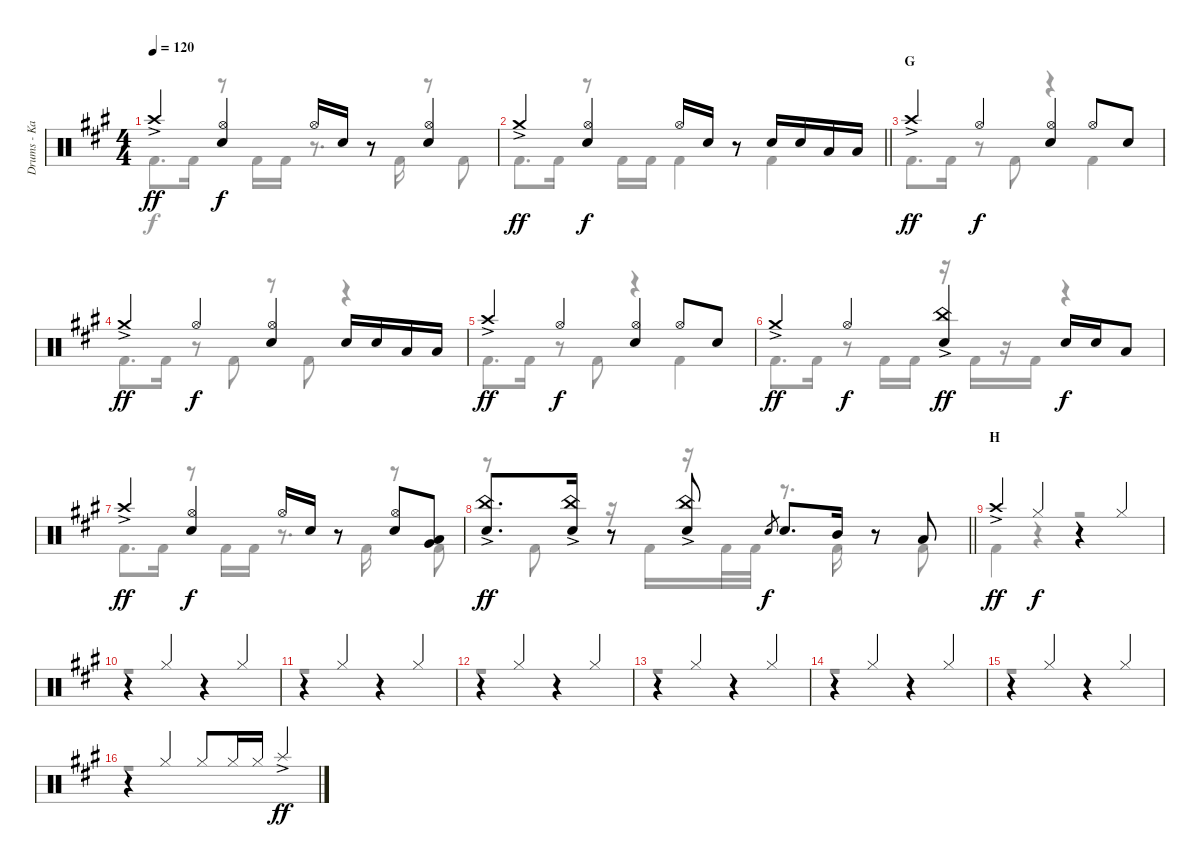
\track ("Drums - Kai" "Drums - Ka") {instrument percussion}
\staff {score}
\articulation defaults
\voice
\ts (4 4)
\tempo 120
\clef neutral
\ks a "Crash high (hit)"{ac}.4{dy ff}
("Hi-Hat (open)" "Snare (hit) 2").4{dy f} "Hi-Hat (open)".16 "Snare (hit) 2".16 r.8 ("Hi-Hat (open)" "Snare (hit) 2").4 |
\barLineRight lightlight "Crash medium (hit)"{ac}.4{dy ff}
("Hi-Hat (open)" "Snare (hit) 2").4{dy f} "Hi-Hat (open)".16 "Snare (hit) 2".16 r.8 "Snare (hit) 2".16 "Snare (hit) 2".16 "Low Tom (hit)".16 "Low Tom (hit)".16 |
\section ("" "G")
"Crash high (hit)"{ac}.4{dy ff} "Hi-Hat (open)".4{dy f} ("Hi-Hat (open)" "Snare (hit) 2").4 "Hi-Hat (open)".8 "Snare (hit) 2".8 |
"Crash medium (hit)"{ac}.4{dy ff} "Hi-Hat (open)".4{dy f} ("Hi-Hat (open)" "Snare (hit) 2").4 "Snare (hit) 2".16 "Snare (hit) 2".16 "Low Tom (hit)".16 "Low Tom (hit)".16 |
"Crash high (hit)"{ac}.4{dy ff} "Hi-Hat (open)".4{dy f} ("Hi-Hat (open)" "Snare (hit) 2").4 "Hi-Hat (open)".8 "Snare (hit) 2".8 |
"Crash medium (hit)"{ac}.4{dy ff} "Hi-Hat (open)".4{dy f} ("China (hit)"{ac} "Snare (hit) 2").4{dy ff} "Snare (hit) 2".16{dy f} "Snare (hit) 2".16 "Low Tom (hit)".8 |
"Crash high (hit)"{ac}.4{dy ff} ("Hi-Hat (open)" "Snare (hit) 2").4{dy f} "Hi-Hat (open)".16 "Snare (hit) 2".16 r.8 ("Hi-Hat (open)" "Snare (hit) 2").8 ("Low Tom (hit)" "Very Low Tom (hit)").8 |
\barLineRight lightlight
("China (hit)"{ac} "Snare (hit) 2").8{d dy ff} ("China (hit)"{ac} "Snare (hit) 2").16 r.8 ("China (hit)"{ac} "Snare (hit) 2").8 "Snare (hit) 2".8{gr dy f} "Snare (hit) 2".8{d} "Mid Tom (hit)".16 r.8 "Low Tom (hit)".8 |
\section ("" "H")
"Crash high (hit)"{ac}.4{dy ff} "Hi-Hat (closed)".4{dy f} r.4 "Hi-Hat (closed)".4 |
r.4 "Hi-Hat (closed)".4 r.4 "Hi-Hat (closed)".4 |
r.4 "Hi-Hat (closed)".4 r.4 "Hi-Hat (closed)".4 |
r.4 "Hi-Hat (closed)".4 r.4 "Hi-Hat (closed)".4 |
r.4 "Hi-Hat (closed)".4 r.4 "Hi-Hat (closed)".4 |
r.4 "Hi-Hat (closed)".4 r.4 "Hi-Hat (closed)".4 |
r.4 "Hi-Hat (closed)".4 r.4 "Hi-Hat (closed)".4 |
r.4 "Hi-Hat (closed)".4 "Hi-Hat (closed)".8 "Hi-Hat (closed)".16 "Hi-Hat (closed)".16 "Splash (hit)"{ac}.4{dy ff}
\voice
\clef neutral
\ottava regular
\simile none
\ks a "Kick (hit) 2".8{d dy f} "Kick (hit) 2".16
r.8 "Kick (hit) 2".16 "Kick (hit) 2".16 r.8{d} "Kick (hit) 2".16 r.8 "Kick (hit) 2".8 |
\barLineRight lightlight "Kick (hit) 2".8{d} "Kick (hit) 2".16
r.8 "Kick (hit) 2".16 "Kick (hit) 2".16 "Kick (hit) 2".4 "Kick (hit) 2".4 |
"Kick (hit) 2".8{d} "Kick (hit) 2".16 r.8 "Kick (hit) 2".8 r.4 "Kick (hit) 2".4 |
"Kick (hit) 2".8{d} "Kick (hit) 2".16 r.8 "Kick (hit) 2".8 r.8 "Kick (hit) 2".8 r.4 |
"Kick (hit) 2".8{d} "Kick (hit) 2".16 r.8 "Kick (hit) 2".8 r.4 "Kick (hit) 2".4 |
"Kick (hit) 2".8{d} "Kick (hit) 2".16 r.8 "Kick (hit) 2".16 "Kick (hit) 2".16 r.16 "Kick (hit) 2".16 r.16 "Kick (hit) 2".16 r.4 |
"Kick (hit) 2".8{d} "Kick (hit) 2".16 r.8 "Kick (hit) 2".16 "Kick (hit) 2".16 r.8{d} "Kick (hit) 2".16 r.8 "Kick (hit) 2".8 |
\barLineRight lightlight
r.8 "Kick (hit) 2".8 r.16 "Kick (hit) 2".16 r.16 "Kick (hit) 2".32 "Kick (hit) 2".32 r.8{d} "Kick (hit) 2".16 r.8 "Kick (hit) 2".8 |
"Kick (hit) 2".4 r.4 r.2 |
r.1 |
r.1 |
r.1 |
r.1 |
r.1 |
r.1 |
r.1
